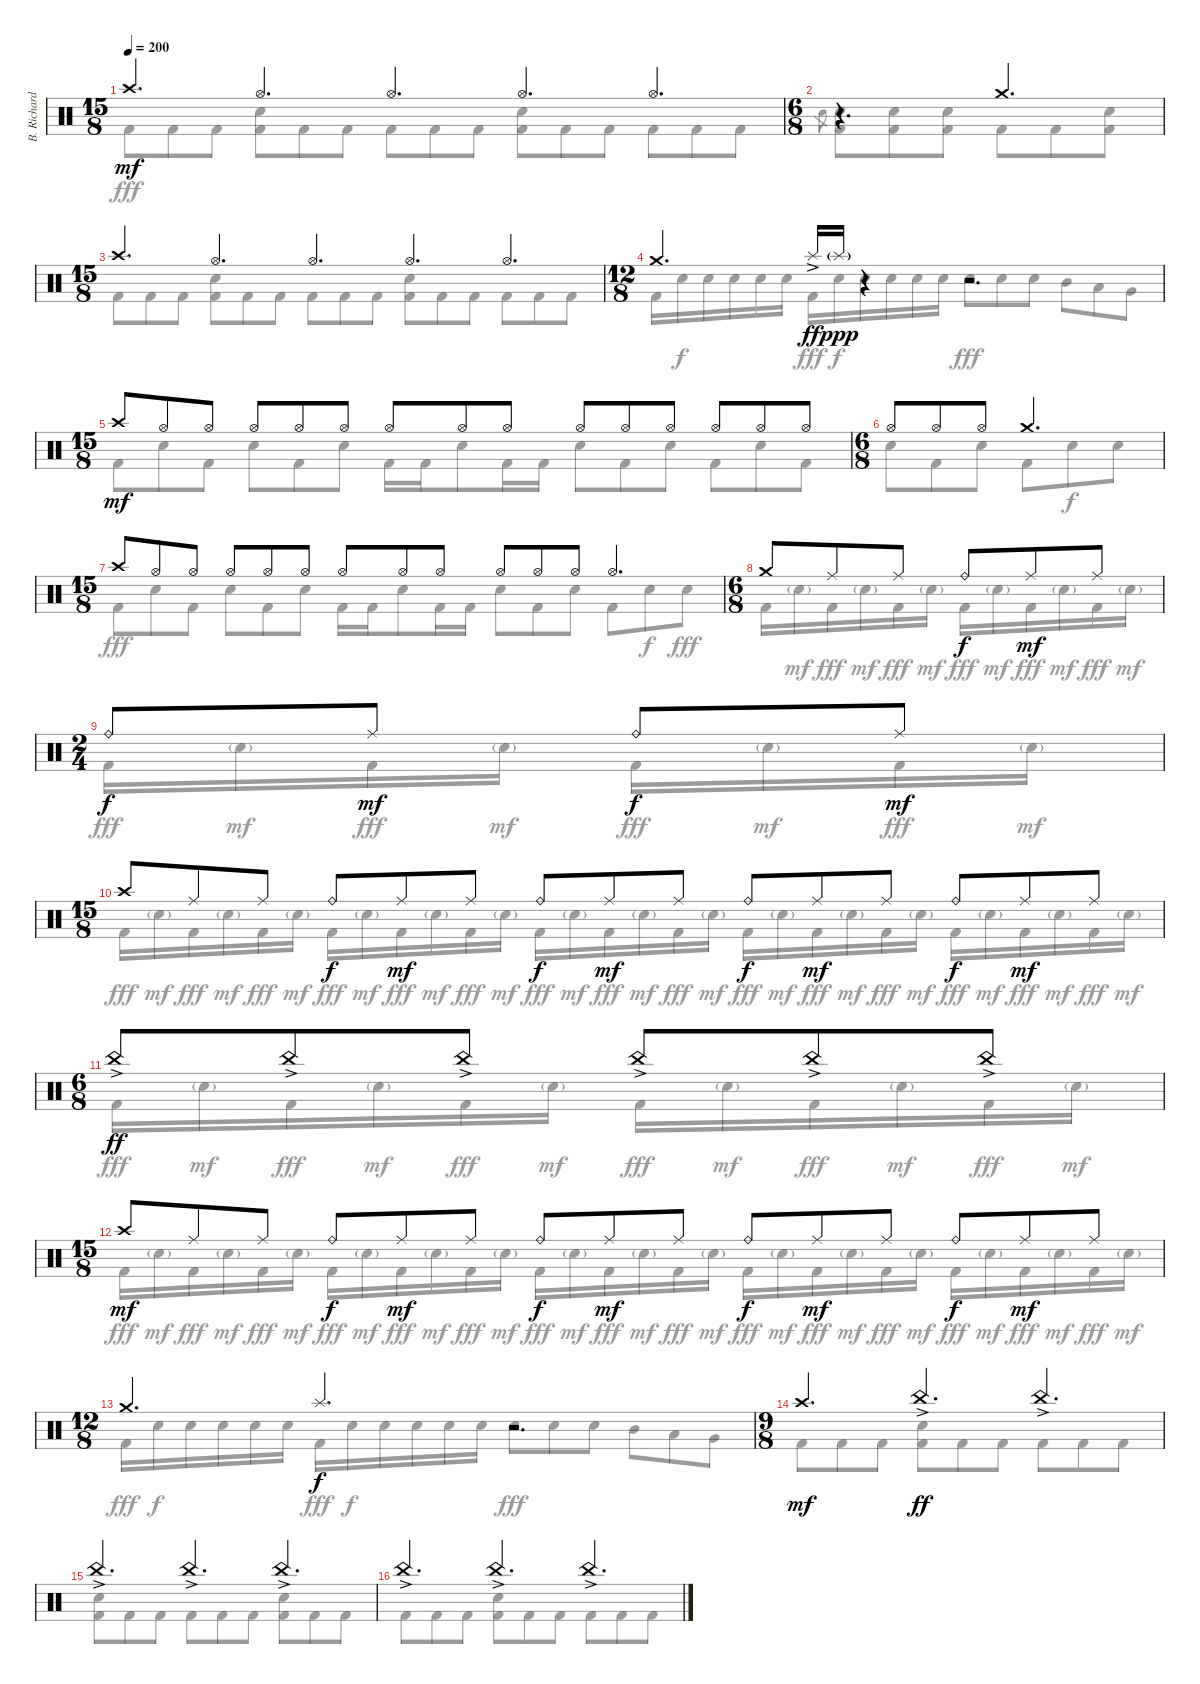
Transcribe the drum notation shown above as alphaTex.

\track ("B. Richardson Drums" "B. Richard") {instrument percussion}
\staff {score}
\articulation defaults
\voice
\ts (15 8)
\tempo 200
\clef neutral
\ks c "Crash high (hit)".4{d dy mf} "Hi-Hat (open)".4{d} "Hi-Hat (open)".4{d} "Hi-Hat (open)".4{d} "Hi-Hat (open)".4{d}
|
\ts (6 8)
r.4{d} "Crash medium (hit)".4{d} |
\ts (15 8)
"Crash high (hit)".4{d} "Hi-Hat (open)".4{d} "Hi-Hat (open)".4{d} "Hi-Hat (open)".4{d} "Hi-Hat (open)".4{d} |
\ts (12 8)
"Crash medium (hit)".4{d} "Splash (hit)"{ac}.16{dy ff} "Splash (hit)"{g}.16{dy ppp} r.4 r.2{d} |
\ts (15 8)
"Crash high (hit)".8{dy mf} "Hi-Hat (open)".8 "Hi-Hat (open)".8 "Hi-Hat (open)".8 "Hi-Hat (open)".8 "Hi-Hat (open)".8 "Hi-Hat (open)".8 "Hi-Hat (open)".8 "Hi-Hat (open)".8 "Hi-Hat (open)".8 "Hi-Hat (open)".8 "Hi-Hat (open)".8 "Hi-Hat (open)".8 "Hi-Hat (open)".8 "Hi-Hat (open)".8 |
\ts (6 8)
"Hi-Hat (open)".8 "Hi-Hat (open)".8 "Hi-Hat (open)".8 "Crash medium (hit)".4{d} |
\ts (15 8)
"Crash high (hit)".8 "Hi-Hat (open)".8 "Hi-Hat (open)".8 "Hi-Hat (open)".8 "Hi-Hat (open)".8 "Hi-Hat (open)".8 "Hi-Hat (open)".8 "Hi-Hat (open)".8 "Hi-Hat (open)".8 "Hi-Hat (open)".8 "Hi-Hat (open)".8 "Hi-Hat (open)".8 "Hi-Hat (open)".4{d} |
\ts (6 8)
"Crash medium (hit)".8 "Ride (middle)".8 "Ride (middle)".8 "Ride (bell)".8{dy f} "Ride (middle)".8{dy mf} "Ride (middle)".8 |
\ts (2 4)
"Ride (bell)".8{dy f} "Ride (middle)".8{dy mf} "Ride (bell)".8{dy f} "Ride (middle)".8{dy mf} |
\ts (15 8)
"Crash high (hit)".8 "Ride (middle)".8 "Ride (middle)".8 "Ride (bell)".8{dy f} "Ride (middle)".8{dy mf} "Ride (middle)".8 "Ride (bell)".8{dy f} "Ride (middle)".8{dy mf} "Ride (middle)".8 "Ride (bell)".8{dy f} "Ride (middle)".8{dy mf} "Ride (middle)".8 "Ride (bell)".8{dy f} "Ride (middle)".8{dy mf} "Ride (middle)".8 |
\ts (6 8)
"China (hit)"{ac}.8{dy ff} "China (hit)"{ac}.8 "China (hit)"{ac}.8 "China (hit)"{ac}.8 "China (hit)"{ac}.8 "China (hit)"{ac}.8 |
\ts (15 8)
"Crash high (hit)".8{dy mf} "Ride (middle)".8 "Ride (middle)".8 "Ride (bell)".8{dy f} "Ride (middle)".8{dy mf} "Ride (middle)".8 "Ride (bell)".8{dy f} "Ride (middle)".8{dy mf} "Ride (middle)".8 "Ride (bell)".8{dy f} "Ride (middle)".8{dy mf} "Ride (middle)".8 "Ride (bell)".8{dy f} "Ride (middle)".8{dy mf} "Ride (middle)".8 |
\ts (12 8)
"Crash medium (hit)".4{d} "Splash (hit)".4{d dy f} r.2{d} |
\ts (9 8)
"Crash high (hit)".4{d dy mf} "China (hit)"{ac}.4{d dy ff} "China (hit)"{ac}.4{d} |
"China (hit)"{ac}.4{d} "China (hit)"{ac}.4{d} "China (hit)"{ac}.4{d} |
"China (hit)"{ac}.4{d} "China (hit)"{ac}.4{d} "China (hit)"{ac}.4{d}
\voice
\clef neutral
\ottava regular
\simile none
\ks c "Kick (hit) 2".8{dy fff} "Kick (hit) 2".8 "Kick (hit) 2".8
("Electric Snare (hit)" "Kick (hit) 2").8 "Kick (hit) 2".8 "Kick (hit) 2".8 "Kick (hit) 2".8 "Kick (hit) 2".8 "Kick (hit) 2".8 ("Electric Snare (hit)" "Kick (hit) 2").8 "Kick (hit) 2".8 "Kick (hit) 2".8 "Kick (hit) 2".8 "Kick (hit) 2".8 "Kick (hit) 2".8 |
"Electric Snare (hit)".8{gr} ("Electric Snare (hit)" "Kick (hit) 2").8 ("Electric Snare (hit)" "Kick (hit) 2").8 ("Electric Snare (hit)" "Kick (hit) 2").8 "Kick (hit) 2".8 "Kick (hit) 2".8 ("Electric Snare (hit)" "Kick (hit) 2").8 |
"Kick (hit) 2".8 "Kick (hit) 2".8 "Kick (hit) 2".8 ("Electric Snare (hit)" "Kick (hit) 2").8 "Kick (hit) 2".8 "Kick (hit) 2".8 "Kick (hit) 2".8 "Kick (hit) 2".8 "Kick (hit) 2".8 ("Electric Snare (hit)" "Kick (hit) 2").8 "Kick (hit) 2".8 "Kick (hit) 2".8 "Kick (hit) 2".8 "Kick (hit) 2".8 "Kick (hit) 2".8 |
"Kick (hit) 2".16 "Electric Snare (hit)".16{dy f} "Electric Snare (hit)".16 "Electric Snare (hit)".16 "Electric Snare (hit)".16 "Electric Snare (hit)".16 "Kick (hit) 2".16{dy fff} "Electric Snare (hit)".16{dy f} "Electric Snare (hit)".16 "Electric Snare (hit)".16 "Electric Snare (hit)".16 "Electric Snare (hit)".16 "Electric Snare (hit)".8{dy fff} "Electric Snare (hit)".8 "Electric Snare (hit)".8 "Mid Tom (hit)".8 "Low Tom (hit)".8 "Very Low Tom (hit)".8 |
"Kick (hit) 2".8 "Electric Snare (hit)".8 "Kick (hit) 2".8 "Electric Snare (hit)".8 "Kick (hit) 2".8 "Electric Snare (hit)".8 "Kick (hit) 2".16 "Kick (hit) 2".16 "Electric Snare (hit)".8 "Kick (hit) 2".16 "Kick (hit) 2".16 "Electric Snare (hit)".8 "Kick (hit) 2".8 "Electric Snare (hit)".8 "Kick (hit) 2".8 "Electric Snare (hit)".8 "Kick (hit) 2".8 |
"Electric Snare (hit)".8 "Kick (hit) 2".8 "Electric Snare (hit)".8 "Kick (hit) 2".8 "Electric Snare (hit)".8{dy f} "Electric Snare (hit)".8 |
"Kick (hit) 2".8{dy fff} "Electric Snare (hit)".8 "Kick (hit) 2".8 "Electric Snare (hit)".8 "Kick (hit) 2".8 "Electric Snare (hit)".8 "Kick (hit) 2".16 "Kick (hit) 2".16 "Electric Snare (hit)".8 "Kick (hit) 2".16 "Kick (hit) 2".16 "Electric Snare (hit)".8 "Kick (hit) 2".8 "Electric Snare (hit)".8 "Kick (hit) 2".8 "Electric Snare (hit)".8{dy f} "Electric Snare (hit)".8{dy fff} |
"Kick (hit) 2".16 "Electric Snare (hit)"{g}.16{dy mf} "Kick (hit) 2".16{dy fff} "Electric Snare (hit)"{g}.16{dy mf} "Kick (hit) 2".16{dy fff} "Electric Snare (hit)"{g}.16{dy mf} "Kick (hit) 2".16{dy fff} "Electric Snare (hit)"{g}.16{dy mf} "Kick (hit) 2".16{dy fff} "Electric Snare (hit)"{g}.16{dy mf} "Kick (hit) 2".16{dy fff} "Electric Snare (hit)"{g}.16{dy mf} |
"Kick (hit) 2".16{dy fff} "Electric Snare (hit)"{g}.16{dy mf} "Kick (hit) 2".16{dy fff} "Electric Snare (hit)"{g}.16{dy mf} "Kick (hit) 2".16{dy fff} "Electric Snare (hit)"{g}.16{dy mf} "Kick (hit) 2".16{dy fff} "Electric Snare (hit)"{g}.16{dy mf} |
"Kick (hit) 2".16{dy fff} "Electric Snare (hit)"{g}.16{dy mf} "Kick (hit) 2".16{dy fff} "Electric Snare (hit)"{g}.16{dy mf} "Kick (hit) 2".16{dy fff} "Electric Snare (hit)"{g}.16{dy mf} "Kick (hit) 2".16{dy fff} "Electric Snare (hit)"{g}.16{dy mf} "Kick (hit) 2".16{dy fff} "Electric Snare (hit)"{g}.16{dy mf} "Kick (hit) 2".16{dy fff} "Electric Snare (hit)"{g}.16{dy mf} "Kick (hit) 2".16{dy fff} "Electric Snare (hit)"{g}.16{dy mf} "Kick (hit) 2".16{dy fff} "Electric Snare (hit)"{g}.16{dy mf} "Kick (hit) 2".16{dy fff} "Electric Snare (hit)"{g}.16{dy mf} "Kick (hit) 2".16{dy fff} "Electric Snare (hit)"{g}.16{dy mf} "Kick (hit) 2".16{dy fff} "Electric Snare (hit)"{g}.16{dy mf} "Kick (hit) 2".16{dy fff} "Electric Snare (hit)"{g}.16{dy mf} "Kick (hit) 2".16{dy fff} "Electric Snare (hit)"{g}.16{dy mf} "Kick (hit) 2".16{dy fff} "Electric Snare (hit)"{g}.16{dy mf} "Kick (hit) 2".16{dy fff} "Electric Snare (hit)"{g}.16{dy mf} |
"Kick (hit) 2".16{dy fff} "Electric Snare (hit)"{g}.16{dy mf} "Kick (hit) 2".16{dy fff} "Electric Snare (hit)"{g}.16{dy mf} "Kick (hit) 2".16{dy fff} "Electric Snare (hit)"{g}.16{dy mf} "Kick (hit) 2".16{dy fff} "Electric Snare (hit)"{g}.16{dy mf} "Kick (hit) 2".16{dy fff} "Electric Snare (hit)"{g}.16{dy mf} "Kick (hit) 2".16{dy fff} "Electric Snare (hit)"{g}.16{dy mf} |
"Kick (hit) 2".16{dy fff} "Electric Snare (hit)"{g}.16{dy mf} "Kick (hit) 2".16{dy fff} "Electric Snare (hit)"{g}.16{dy mf} "Kick (hit) 2".16{dy fff} "Electric Snare (hit)"{g}.16{dy mf} "Kick (hit) 2".16{dy fff} "Electric Snare (hit)"{g}.16{dy mf} "Kick (hit) 2".16{dy fff} "Electric Snare (hit)"{g}.16{dy mf} "Kick (hit) 2".16{dy fff} "Electric Snare (hit)"{g}.16{dy mf} "Kick (hit) 2".16{dy fff} "Electric Snare (hit)"{g}.16{dy mf} "Kick (hit) 2".16{dy fff} "Electric Snare (hit)"{g}.16{dy mf} "Kick (hit) 2".16{dy fff} "Electric Snare (hit)"{g}.16{dy mf} "Kick (hit) 2".16{dy fff} "Electric Snare (hit)"{g}.16{dy mf} "Kick (hit) 2".16{dy fff} "Electric Snare (hit)"{g}.16{dy mf} "Kick (hit) 2".16{dy fff} "Electric Snare (hit)"{g}.16{dy mf} "Kick (hit) 2".16{dy fff} "Electric Snare (hit)"{g}.16{dy mf} "Kick (hit) 2".16{dy fff} "Electric Snare (hit)"{g}.16{dy mf} "Kick (hit) 2".16{dy fff} "Electric Snare (hit)"{g}.16{dy mf} |
"Kick (hit) 2".16{dy fff} "Electric Snare (hit)".16{dy f} "Electric Snare (hit)".16 "Electric Snare (hit)".16 "Electric Snare (hit)".16 "Electric Snare (hit)".16 "Kick (hit) 2".16{dy fff} "Electric Snare (hit)".16{dy f} "Electric Snare (hit)".16 "Electric Snare (hit)".16 "Electric Snare (hit)".16 "Electric Snare (hit)".16 "Electric Snare (hit)".8{dy fff} "Electric Snare (hit)".8 "Electric Snare (hit)".8 "Mid Tom (hit)".8 "Low Tom (hit)".8 "Very Low Tom (hit)".8 |
"Kick (hit) 2".8 "Kick (hit) 2".8 "Kick (hit) 2".8 ("Electric Snare (hit)" "Kick (hit) 2").8 "Kick (hit) 2".8 "Kick (hit) 2".8 "Kick (hit) 2".8 "Kick (hit) 2".8 "Kick (hit) 2".8 |
("Electric Snare (hit)" "Kick (hit) 2").8 "Kick (hit) 2".8 "Kick (hit) 2".8 "Kick (hit) 2".8 "Kick (hit) 2".8 "Kick (hit) 2".8 ("Electric Snare (hit)" "Kick (hit) 2").8 "Kick (hit) 2".8 "Kick (hit) 2".8 |
"Kick (hit) 2".8 "Kick (hit) 2".8 "Kick (hit) 2".8 ("Electric Snare (hit)" "Kick (hit) 2").8 "Kick (hit) 2".8 "Kick (hit) 2".8 "Kick (hit) 2".8 "Kick (hit) 2".8 "Kick (hit) 2".8
